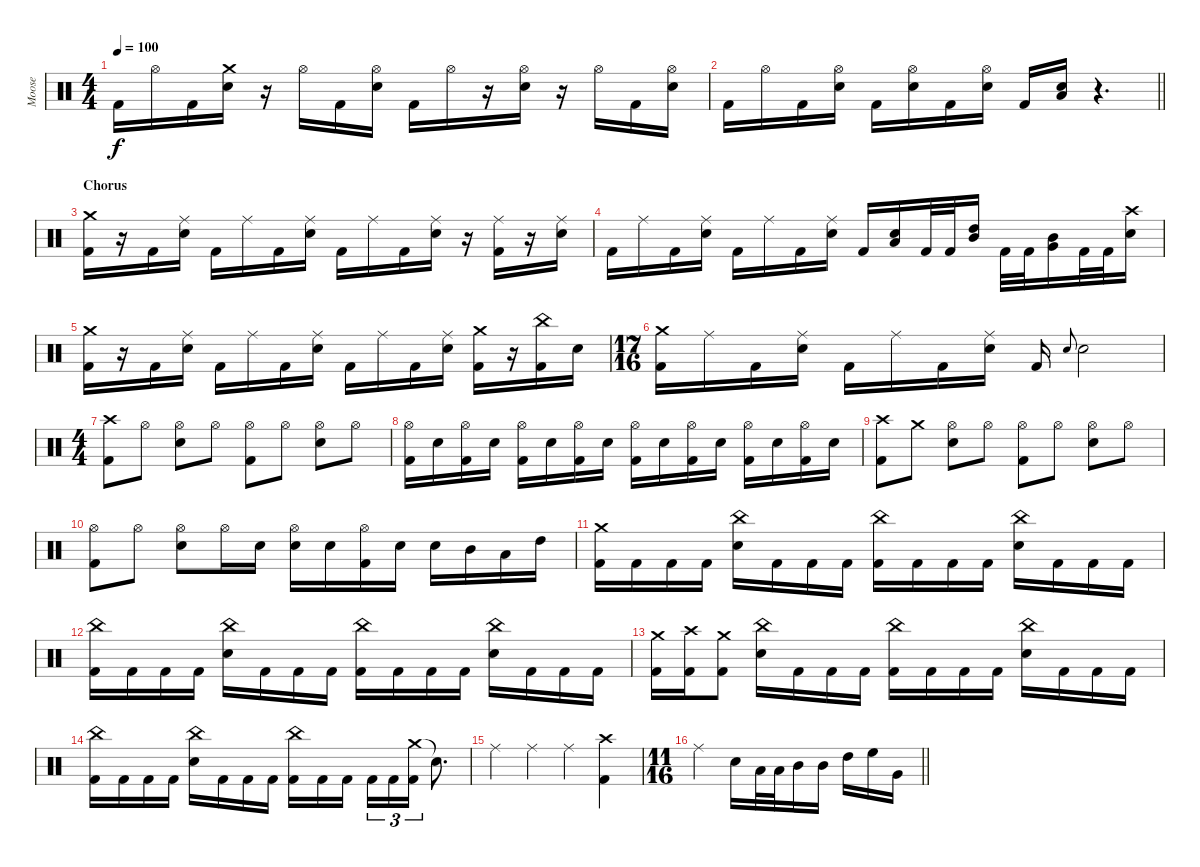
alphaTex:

\track ("Moose" "Moose") {instrument percussion}
\staff {score}
\articulation defaults
\ts (4 4)
\tempo 100
\clef neutral
\ks c "Kick (hit) 2".16{dy f} "Hi-Hat (open)".16 "Kick (hit) 2".16
("Crash medium (hit)" "Electric Snare (hit)").16 r.16 "Hi-Hat (open)".16 "Kick (hit) 2".16 ("Hi-Hat (open)" "Electric Snare (hit)").16 "Kick (hit) 2".16 "Hi-Hat (open)".16 r.16 ("Hi-Hat (open)" "Electric Snare (hit)").16 r.16 "Hi-Hat (open)".16 "Kick (hit) 2".16 ("Hi-Hat (open)" "Electric Snare (hit)").16 |
\barLineRight lightlight "Kick (hit) 2".16 "Hi-Hat (open)".16 "Kick (hit) 2".16
("Hi-Hat (open)" "Electric Snare (hit)").16 "Kick (hit) 2".16 ("Hi-Hat (open)" "Electric Snare (hit)").16 "Kick (hit) 2".16 ("Hi-Hat (open)" "Electric Snare (hit)").16 "Kick (hit) 2".16 ("Low Tom (hit)" "Electric Snare (hit)").16 r.4{d} |
\section ("" "Chorus")
("Crash medium (hit)" "Kick (hit) 2").16 r.16 "Kick (hit) 2".16 ("Ride (middle)" "Electric Snare (hit)").16 "Kick (hit) 2".16 "Ride (middle)".16 "Kick (hit) 2".16 ("Ride (middle)" "Electric Snare (hit)").16 "Kick (hit) 2".16 "Ride (middle)".16 "Kick (hit) 2".16 ("Ride (middle)" "Electric Snare (hit)").16 r.16 ("Ride (middle)" "Kick (hit) 2").16 r.16 ("Ride (middle)" "Electric Snare (hit)").16 |
"Kick (hit) 2".16 "Ride (middle)".16 "Kick (hit) 2".16 ("Ride (middle)" "Electric Snare (hit)").16 "Kick (hit) 2".16 "Ride (middle)".16 "Kick (hit) 2".16 ("Ride (middle)" "Electric Snare (hit)").16 "Kick (hit) 2".16 ("Low Tom (hit)" "Electric Snare (hit)").16 "Kick (hit) 2".32 "Kick (hit) 2".32 ("Mid Tom (hit)" "High Tom (hit)").16 "Kick (hit) 2".32 "Kick (hit) 2".32 ("Very Low Tom (hit)" "Mid Tom (hit)").16 "Kick (hit) 2".32 "Kick (hit) 2".32 ("Crash high (hit)" "Electric Snare (hit)").16 |
("Crash medium (hit)" "Kick (hit) 2").16 r.16 "Kick (hit) 2".16 ("Ride (middle)" "Electric Snare (hit)").16 "Kick (hit) 2".16 "Ride (middle)".16 "Kick (hit) 2".16 ("Ride (middle)" "Electric Snare (hit)").16 "Kick (hit) 2".16 "Ride (middle)".16 "Kick (hit) 2".16 ("Ride (middle)" "Electric Snare (hit)").16 ("Crash medium (hit)" "Kick (hit) 2").16 r.16 ("China (hit)" "Kick (hit) 2").16 "Electric Snare (hit)".16 |
\ts (17 16)
("Crash medium (hit)" "Kick (hit) 2").16 "Ride (middle)".16 "Kick (hit) 2".16 ("Ride (middle)" "Electric Snare (hit)").16 "Kick (hit) 2".16 "Ride (middle)".16 "Kick (hit) 2".16 ("Ride (middle)" "Electric Snare (hit)").16 "Kick (hit) 2".16 "Electric Snare (hit)".8{gr onbeat} "Electric Snare (hit)".2 |
\ts (4 4)
("Crash high (hit)" "Kick (hit) 2").8 "Hi-Hat (open)".8 ("Hi-Hat (open)" "Electric Snare (hit)").8 "Hi-Hat (open)".8 ("Hi-Hat (open)" "Kick (hit) 2").8 "Hi-Hat (open)".8 ("Hi-Hat (open)" "Electric Snare (hit)").8 "Hi-Hat (open)".8 |
("Hi-Hat (open)" "Kick (hit) 2").16 "Electric Snare (hit)".16 ("Hi-Hat (open)" "Kick (hit) 2").16 "Electric Snare (hit)".16 ("Hi-Hat (open)" "Kick (hit) 2").16 "Electric Snare (hit)".16 ("Hi-Hat (open)" "Kick (hit) 2").16 "Electric Snare (hit)".16 ("Hi-Hat (open)" "Kick (hit) 2").16 "Electric Snare (hit)".16 ("Hi-Hat (open)" "Kick (hit) 2").16 "Electric Snare (hit)".16 ("Hi-Hat (open)" "Kick (hit) 2").16 "Electric Snare (hit)".16 ("Hi-Hat (open)" "Kick (hit) 2").16 "Electric Snare (hit)".16 |
("Crash high (hit)" "Kick (hit) 2").8 "Crash medium (hit)".8 ("Hi-Hat (open)" "Electric Snare (hit)").8 "Hi-Hat (open)".8 ("Hi-Hat (open)" "Kick (hit) 2").8 "Hi-Hat (open)".8 ("Hi-Hat (open)" "Electric Snare (hit)").8 "Hi-Hat (open)".8 |
("Hi-Hat (open)" "Kick (hit) 2").8 "Hi-Hat (open)".8 ("Hi-Hat (open)" "Electric Snare (hit)").8 "Hi-Hat (open)".16 "Electric Snare (hit)".16 ("Hi-Hat (open)" "Electric Snare (hit)").16 "Electric Snare (hit)".16 ("Hi-Hat (open)" "Kick (hit) 2").16 "Electric Snare (hit)".16 "Electric Snare (hit)".16 "Mid Tom (hit)".16 "Low Tom (hit)".16 "High Tom (hit)".16 |
("Crash medium (hit)" "Kick (hit) 2").16 "Kick (hit) 2".16 "Kick (hit) 2".16 "Kick (hit) 2".16 ("China (hit)" "Electric Snare (hit)").16 "Kick (hit) 2".16 "Kick (hit) 2".16 "Kick (hit) 2".16 ("China (hit)" "Kick (hit) 2").16 "Kick (hit) 2".16 "Kick (hit) 2".16 "Kick (hit) 2".16 ("China (hit)" "Electric Snare (hit)").16 "Kick (hit) 2".16 "Kick (hit) 2".16 "Kick (hit) 2".16 |
("China (hit)" "Kick (hit) 2").16 "Kick (hit) 2".16 "Kick (hit) 2".16 "Kick (hit) 2".16 ("China (hit)" "Electric Snare (hit)").16 "Kick (hit) 2".16 "Kick (hit) 2".16 "Kick (hit) 2".16 ("China (hit)" "Kick (hit) 2").16 "Kick (hit) 2".16 "Kick (hit) 2".16 "Kick (hit) 2".16 ("China (hit)" "Electric Snare (hit)").16 "Kick (hit) 2".16 "Kick (hit) 2".16 "Kick (hit) 2".16 |
("Crash medium (hit)" "Kick (hit) 2").16 ("Crash high (hit)" "Kick (hit) 2").16 ("Crash medium (hit)" "Kick (hit) 2").8 ("China (hit)" "Electric Snare (hit)").16 "Kick (hit) 2".16 "Kick (hit) 2".16 "Kick (hit) 2".16 ("China (hit)" "Kick (hit) 2").16 "Kick (hit) 2".16 "Kick (hit) 2".16 "Kick (hit) 2".16 ("China (hit)" "Electric Snare (hit)").16 "Kick (hit) 2".16 "Kick (hit) 2".16 "Kick (hit) 2".16 |
("China (hit)" "Kick (hit) 2").16 "Kick (hit) 2".16 "Kick (hit) 2".16 "Kick (hit) 2".16 ("China (hit)" "Electric Snare (hit)").16 "Kick (hit) 2".16 "Kick (hit) 2".16 "Kick (hit) 2".16 ("China (hit)" "Kick (hit) 2").16 "Kick (hit) 2".16 "Kick (hit) 2".16{beam splitsecondary} "Kick (hit) 2".16{tu (3 2)} "Kick (hit) 2".16{tu (3 2)} ("Crash medium (hit)" "Kick (hit) 2").16{tu (3 2)} "Snare (hit)"{t}.8{d} |
"Ride (middle)".4 "Ride (middle)".4 "Ride (middle)".4 ("Crash high (hit)" "Kick (hit) 2").4 |
\ts (11 16)
\barLineRight lightlight "Ride (middle)".4 "Electric Snare (hit)".16 "Low Tom (hit)".32 "Low Tom (hit)".32 "Mid Tom (hit)".16 "Mid Tom (hit)".16 "High Tom (hit)".16 "High Floor Tom (hit)".16 "Very Low Tom (hit)".16
